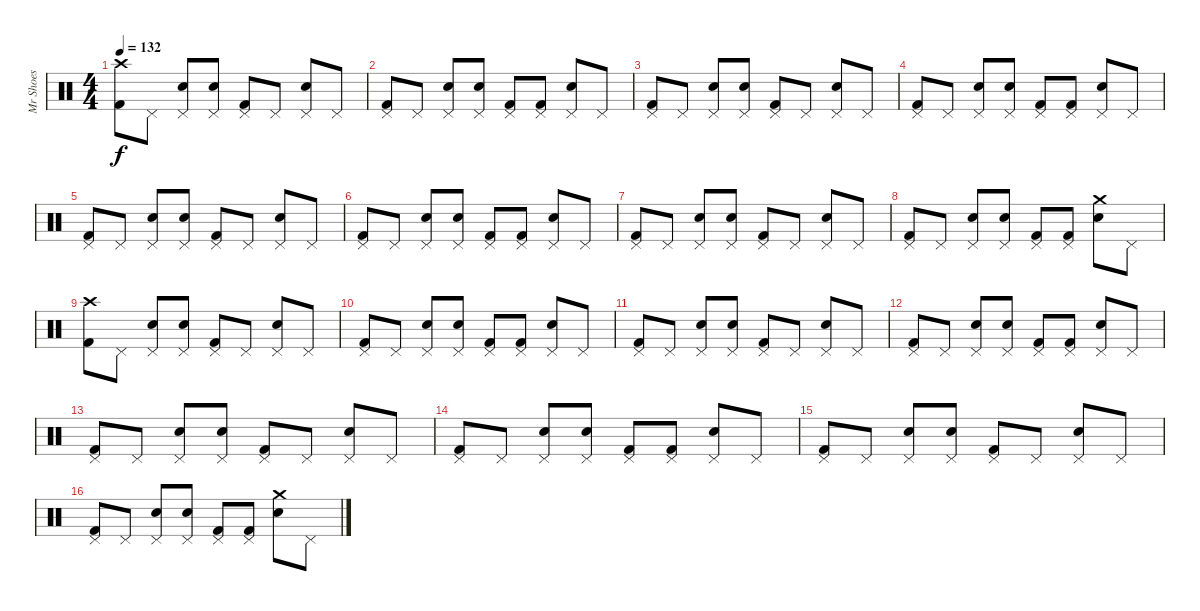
\track ("Mr Shoes" "Mr Shoes") {instrument percussion}
\staff {score}
\articulation defaults
\ts (4 4)
\tempo 132
\clef neutral
\ks c
("Kick (hit) 2" "Crash high (hit)").8{dy f} "Pedal Hi-Hat (hit)".8 ("Electric Snare (hit)" "Pedal Hi-Hat (hit)").8 ("Electric Snare (hit)" "Pedal Hi-Hat (hit)").8 ("Kick (hit) 2" "Pedal Hi-Hat (hit)").8 "Pedal Hi-Hat (hit)".8 ("Electric Snare (hit)" "Pedal Hi-Hat (hit)").8 "Pedal Hi-Hat (hit)".8 |
("Kick (hit) 2" "Pedal Hi-Hat (hit)").8 "Pedal Hi-Hat (hit)".8 ("Electric Snare (hit)" "Pedal Hi-Hat (hit)").8 ("Electric Snare (hit)" "Pedal Hi-Hat (hit)").8 ("Kick (hit) 2" "Pedal Hi-Hat (hit)").8 ("Kick (hit) 2" "Pedal Hi-Hat (hit)").8 ("Electric Snare (hit)" "Pedal Hi-Hat (hit)").8 "Pedal Hi-Hat (hit)".8 |
("Kick (hit) 2" "Pedal Hi-Hat (hit)").8 "Pedal Hi-Hat (hit)".8 ("Electric Snare (hit)" "Pedal Hi-Hat (hit)").8 ("Electric Snare (hit)" "Pedal Hi-Hat (hit)").8 ("Kick (hit) 2" "Pedal Hi-Hat (hit)").8 "Pedal Hi-Hat (hit)".8 ("Electric Snare (hit)" "Pedal Hi-Hat (hit)").8 "Pedal Hi-Hat (hit)".8 |
("Kick (hit) 2" "Pedal Hi-Hat (hit)").8 "Pedal Hi-Hat (hit)".8 ("Electric Snare (hit)" "Pedal Hi-Hat (hit)").8 ("Electric Snare (hit)" "Pedal Hi-Hat (hit)").8 ("Kick (hit) 2" "Pedal Hi-Hat (hit)").8 ("Kick (hit) 2" "Pedal Hi-Hat (hit)").8 ("Electric Snare (hit)" "Pedal Hi-Hat (hit)").8 "Pedal Hi-Hat (hit)".8 |
("Kick (hit) 2" "Pedal Hi-Hat (hit)").8 "Pedal Hi-Hat (hit)".8 ("Electric Snare (hit)" "Pedal Hi-Hat (hit)").8 ("Electric Snare (hit)" "Pedal Hi-Hat (hit)").8 ("Kick (hit) 2" "Pedal Hi-Hat (hit)").8 "Pedal Hi-Hat (hit)".8 ("Electric Snare (hit)" "Pedal Hi-Hat (hit)").8 "Pedal Hi-Hat (hit)".8 |
("Kick (hit) 2" "Pedal Hi-Hat (hit)").8 "Pedal Hi-Hat (hit)".8 ("Electric Snare (hit)" "Pedal Hi-Hat (hit)").8 ("Electric Snare (hit)" "Pedal Hi-Hat (hit)").8 ("Kick (hit) 2" "Pedal Hi-Hat (hit)").8 ("Kick (hit) 2" "Pedal Hi-Hat (hit)").8 ("Electric Snare (hit)" "Pedal Hi-Hat (hit)").8 "Pedal Hi-Hat (hit)".8 |
("Kick (hit) 2" "Pedal Hi-Hat (hit)").8 "Pedal Hi-Hat (hit)".8 ("Electric Snare (hit)" "Pedal Hi-Hat (hit)").8 ("Electric Snare (hit)" "Pedal Hi-Hat (hit)").8 ("Kick (hit) 2" "Pedal Hi-Hat (hit)").8 "Pedal Hi-Hat (hit)".8 ("Electric Snare (hit)" "Pedal Hi-Hat (hit)").8 "Pedal Hi-Hat (hit)".8 |
("Kick (hit) 2" "Pedal Hi-Hat (hit)").8 "Pedal Hi-Hat (hit)".8 ("Electric Snare (hit)" "Pedal Hi-Hat (hit)").8 ("Electric Snare (hit)" "Pedal Hi-Hat (hit)").8 ("Kick (hit) 2" "Pedal Hi-Hat (hit)").8 ("Kick (hit) 2" "Pedal Hi-Hat (hit)").8 ("Electric Snare (hit)" "Crash medium (hit)").8 "Pedal Hi-Hat (hit)".8 |
("Kick (hit) 2" "Crash high (hit)").8 "Pedal Hi-Hat (hit)".8 ("Electric Snare (hit)" "Pedal Hi-Hat (hit)").8 ("Electric Snare (hit)" "Pedal Hi-Hat (hit)").8 ("Kick (hit) 2" "Pedal Hi-Hat (hit)").8 "Pedal Hi-Hat (hit)".8 ("Electric Snare (hit)" "Pedal Hi-Hat (hit)").8 "Pedal Hi-Hat (hit)".8 |
("Kick (hit) 2" "Pedal Hi-Hat (hit)").8 "Pedal Hi-Hat (hit)".8 ("Electric Snare (hit)" "Pedal Hi-Hat (hit)").8 ("Electric Snare (hit)" "Pedal Hi-Hat (hit)").8 ("Kick (hit) 2" "Pedal Hi-Hat (hit)").8 ("Kick (hit) 2" "Pedal Hi-Hat (hit)").8 ("Electric Snare (hit)" "Pedal Hi-Hat (hit)").8 "Pedal Hi-Hat (hit)".8 |
("Kick (hit) 2" "Pedal Hi-Hat (hit)").8 "Pedal Hi-Hat (hit)".8 ("Electric Snare (hit)" "Pedal Hi-Hat (hit)").8 ("Electric Snare (hit)" "Pedal Hi-Hat (hit)").8 ("Kick (hit) 2" "Pedal Hi-Hat (hit)").8 "Pedal Hi-Hat (hit)".8 ("Electric Snare (hit)" "Pedal Hi-Hat (hit)").8 "Pedal Hi-Hat (hit)".8 |
("Kick (hit) 2" "Pedal Hi-Hat (hit)").8 "Pedal Hi-Hat (hit)".8 ("Electric Snare (hit)" "Pedal Hi-Hat (hit)").8 ("Electric Snare (hit)" "Pedal Hi-Hat (hit)").8 ("Kick (hit) 2" "Pedal Hi-Hat (hit)").8 ("Kick (hit) 2" "Pedal Hi-Hat (hit)").8 ("Electric Snare (hit)" "Pedal Hi-Hat (hit)").8 "Pedal Hi-Hat (hit)".8 |
("Kick (hit) 2" "Pedal Hi-Hat (hit)").8 "Pedal Hi-Hat (hit)".8 ("Electric Snare (hit)" "Pedal Hi-Hat (hit)").8 ("Electric Snare (hit)" "Pedal Hi-Hat (hit)").8 ("Kick (hit) 2" "Pedal Hi-Hat (hit)").8 "Pedal Hi-Hat (hit)".8 ("Electric Snare (hit)" "Pedal Hi-Hat (hit)").8 "Pedal Hi-Hat (hit)".8 |
("Kick (hit) 2" "Pedal Hi-Hat (hit)").8 "Pedal Hi-Hat (hit)".8 ("Electric Snare (hit)" "Pedal Hi-Hat (hit)").8 ("Electric Snare (hit)" "Pedal Hi-Hat (hit)").8 ("Kick (hit) 2" "Pedal Hi-Hat (hit)").8 ("Kick (hit) 2" "Pedal Hi-Hat (hit)").8 ("Electric Snare (hit)" "Pedal Hi-Hat (hit)").8 "Pedal Hi-Hat (hit)".8 |
("Kick (hit) 2" "Pedal Hi-Hat (hit)").8 "Pedal Hi-Hat (hit)".8 ("Electric Snare (hit)" "Pedal Hi-Hat (hit)").8 ("Electric Snare (hit)" "Pedal Hi-Hat (hit)").8 ("Kick (hit) 2" "Pedal Hi-Hat (hit)").8 "Pedal Hi-Hat (hit)".8 ("Electric Snare (hit)" "Pedal Hi-Hat (hit)").8 "Pedal Hi-Hat (hit)".8 |
("Kick (hit) 2" "Pedal Hi-Hat (hit)").8 "Pedal Hi-Hat (hit)".8 ("Electric Snare (hit)" "Pedal Hi-Hat (hit)").8 ("Electric Snare (hit)" "Pedal Hi-Hat (hit)").8 ("Kick (hit) 2" "Pedal Hi-Hat (hit)").8 ("Kick (hit) 2" "Pedal Hi-Hat (hit)").8 ("Electric Snare (hit)" "Crash medium (hit)").8 "Pedal Hi-Hat (hit)".8
